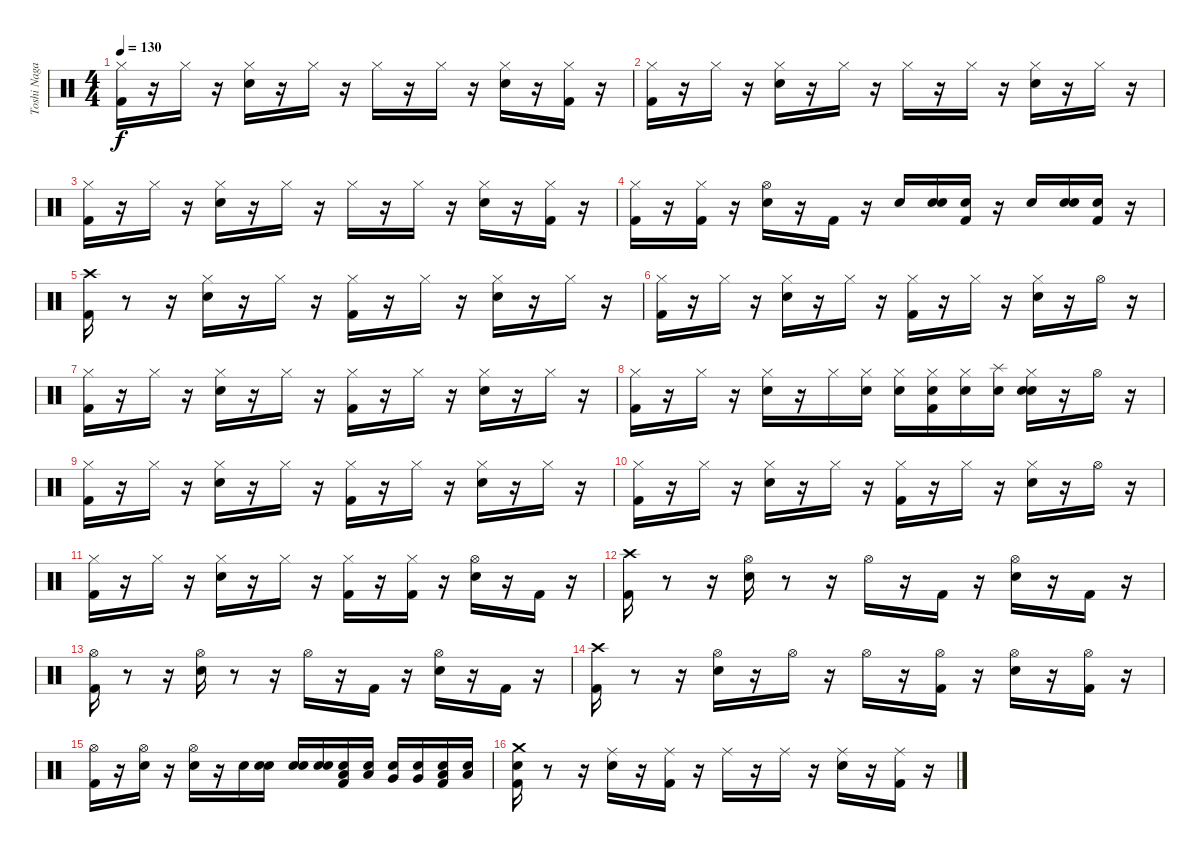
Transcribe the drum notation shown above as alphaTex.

\track ("Toshi Nagai" "Toshi Naga") {instrument percussion}
\staff {score}
\articulation defaults
\ts (4 4)
\tempo 130
\clef neutral
\ks c
("Kick (hit) 2" "Hi-Hat (closed)").16{dy f} r.16 "Hi-Hat (closed)".16 r.16 ("Electric Snare (hit)" "Hi-Hat (closed)").16 r.16 "Hi-Hat (closed)".16 r.16 "Hi-Hat (closed)".16 r.16 "Hi-Hat (closed)".16 r.16 ("Electric Snare (hit)" "Hi-Hat (closed)").16 r.16 ("Kick (hit) 2" "Hi-Hat (closed)").16 r.16 |
("Kick (hit) 2" "Hi-Hat (closed)").16 r.16 "Hi-Hat (closed)".16 r.16 ("Electric Snare (hit)" "Hi-Hat (closed)").16 r.16 "Hi-Hat (closed)".16 r.16 "Hi-Hat (closed)".16 r.16 "Hi-Hat (closed)".16 r.16 ("Electric Snare (hit)" "Hi-Hat (closed)").16 r.16 "Hi-Hat (closed)".16 r.16 |
("Kick (hit) 2" "Hi-Hat (closed)").16 r.16 "Hi-Hat (closed)".16 r.16 ("Electric Snare (hit)" "Hi-Hat (closed)").16 r.16 "Hi-Hat (closed)".16 r.16 "Hi-Hat (closed)".16 r.16 "Hi-Hat (closed)".16 r.16 ("Electric Snare (hit)" "Hi-Hat (closed)").16 r.16 ("Kick (hit) 2" "Hi-Hat (closed)").16 r.16 |
("Hi-Hat (closed)" "Kick (hit) 2").16 r.16 ("Hi-Hat (closed)" "Kick (hit) 2").16 r.16 ("Hi-Hat (open)" "Electric Snare (hit)").16 r.16 "Kick (hit) 2".16 r.16 "Electric Snare (hit)".16 ("Snare (hit)" "Electric Snare (hit)").16 ("Snare (hit)" "Kick (hit) 2").16 r.16 "Electric Snare (hit)".16 ("Snare (hit)" "Electric Snare (hit)").16 ("Snare (hit)" "Kick (hit) 2").16 r.16 |
("Crash high (hit)" "Kick (hit) 2").16 r.8 r.16 ("Electric Snare (hit)" "Hi-Hat (closed)").16 r.16 "Hi-Hat (closed)".16 r.16 ("Kick (hit) 2" "Hi-Hat (closed)").16 r.16 "Hi-Hat (closed)".16 r.16 ("Electric Snare (hit)" "Hi-Hat (closed)").16 r.16 "Hi-Hat (closed)".16 r.16 |
("Kick (hit) 2" "Hi-Hat (closed)").16 r.16 "Hi-Hat (closed)".16 r.16 ("Electric Snare (hit)" "Hi-Hat (closed)").16 r.16 "Hi-Hat (closed)".16 r.16 ("Kick (hit) 2" "Hi-Hat (closed)").16 r.16 "Hi-Hat (closed)".16 r.16 ("Electric Snare (hit)" "Hi-Hat (closed)").16 r.16 "Hi-Hat (open)".16 r.16 |
("Kick (hit) 2" "Hi-Hat (closed)").16 r.16 "Hi-Hat (closed)".16 r.16 ("Electric Snare (hit)" "Hi-Hat (closed)").16 r.16 "Hi-Hat (closed)".16 r.16 ("Kick (hit) 2" "Hi-Hat (closed)").16 r.16 "Hi-Hat (closed)".16 r.16 ("Electric Snare (hit)" "Hi-Hat (closed)").16 r.16 "Hi-Hat (closed)".16 r.16 |
("Kick (hit) 2" "Hi-Hat (closed)").16 r.16 "Hi-Hat (closed)".16 r.16 ("Electric Snare (hit)" "Hi-Hat (closed)").16 r.16 "Hi-Hat (closed)".16 ("Snare (hit)" "Hi-Hat (closed)").16 ("Snare (hit)" "Hi-Hat (closed)").16 ("Snare (hit)" "Kick (hit) 2" "Hi-Hat (closed)").16 ("Snare (hit)" "Hi-Hat (closed)").16 ("Snare (hit)" "Splash (hit)").16 ("Snare (hit)" "Electric Snare (hit)" "Hi-Hat (closed)").16 r.16 "Hi-Hat (open)".16 r.16 |
("Kick (hit) 2" "Hi-Hat (closed)").16 r.16 "Hi-Hat (closed)".16 r.16 ("Electric Snare (hit)" "Hi-Hat (closed)").16 r.16 "Hi-Hat (closed)".16 r.16 ("Kick (hit) 2" "Hi-Hat (closed)").16 r.16 "Hi-Hat (closed)".16 r.16 ("Electric Snare (hit)" "Hi-Hat (closed)").16 r.16 "Hi-Hat (closed)".16 r.16 |
("Kick (hit) 2" "Hi-Hat (closed)").16 r.16 "Hi-Hat (closed)".16 r.16 ("Electric Snare (hit)" "Hi-Hat (closed)").16 r.16 "Hi-Hat (closed)".16 r.16 ("Kick (hit) 2" "Hi-Hat (closed)").16 r.16 "Hi-Hat (closed)".16 r.16 ("Electric Snare (hit)" "Hi-Hat (closed)").16 r.16 "Hi-Hat (open)".16 r.16 |
("Kick (hit) 2" "Hi-Hat (closed)").16 r.16 "Hi-Hat (closed)".16 r.16 ("Electric Snare (hit)" "Hi-Hat (closed)").16 r.16 "Hi-Hat (closed)".16 r.16 ("Kick (hit) 2" "Hi-Hat (closed)").16 r.16 ("Kick (hit) 2" "Hi-Hat (closed)").16 r.16 ("Electric Snare (hit)" "Hi-Hat (open)").16 r.16 "Kick (hit) 2".16 r.16 |
("Crash high (hit)" "Kick (hit) 2").16 r.8 r.16 ("Electric Snare (hit)" "Hi-Hat (open)").16 r.8 r.16 "Hi-Hat (open)".16 r.16 "Kick (hit) 2".16 r.16 ("Hi-Hat (open)" "Electric Snare (hit)").16 r.16 "Kick (hit) 2".16 r.16 |
("Hi-Hat (open)" "Kick (hit) 2").16 r.8 r.16 ("Electric Snare (hit)" "Hi-Hat (open)").16 r.8 r.16 "Hi-Hat (open)".16 r.16 "Kick (hit) 2".16 r.16 ("Hi-Hat (open)" "Electric Snare (hit)").16 r.16 "Kick (hit) 2".16 r.16 |
("Kick (hit) 2" "Crash high (hit)").16 r.8 r.16 ("Electric Snare (hit)" "Hi-Hat (open)").16 r.16 "Hi-Hat (open)".16 r.16 "Hi-Hat (open)".16 r.16 ("Kick (hit) 2" "Hi-Hat (open)").16 r.16 ("Electric Snare (hit)" "Hi-Hat (open)").16 r.16 ("Kick (hit) 2" "Hi-Hat (open)").16 r.16 |
("Hi-Hat (open)" "Kick (hit) 2").16 r.16 ("Electric Snare (hit)" "Hi-Hat (open)").16 r.16 ("Electric Snare (hit)" "Hi-Hat (open)").16 r.16 "Electric Snare (hit)".16 ("Snare (hit)" "Electric Snare (hit)").16 ("Snare (hit)" "Electric Snare (hit)").16 ("Snare (hit)" "Electric Snare (hit)").16 ("Snare (hit)" "Kick (hit) 2" "Low Tom (hit)").16 ("Snare (hit)" "Low Tom (hit)").16 ("Snare (hit)" "Very Low Tom (hit)").16 ("Snare (hit)" "Very Low Tom (hit)").16 ("Snare (hit)" "Kick (hit) 2" "Low Floor Tom (hit)").16 ("Snare (hit)" "Low Floor Tom (hit)").16 |
("Snare (hit)" "Kick (hit) 2" "Crash medium (hit)").16 r.8 r.16 ("Electric Snare (hit)" "Ride (middle)").16 r.16 ("Kick (hit) 2" "Ride (middle)").16 r.16 "Ride (middle)".16 r.16 "Ride (middle)".16 r.16 ("Electric Snare (hit)" "Ride (middle)").16 r.16 ("Kick (hit) 2" "Ride (middle)").16 r.16
